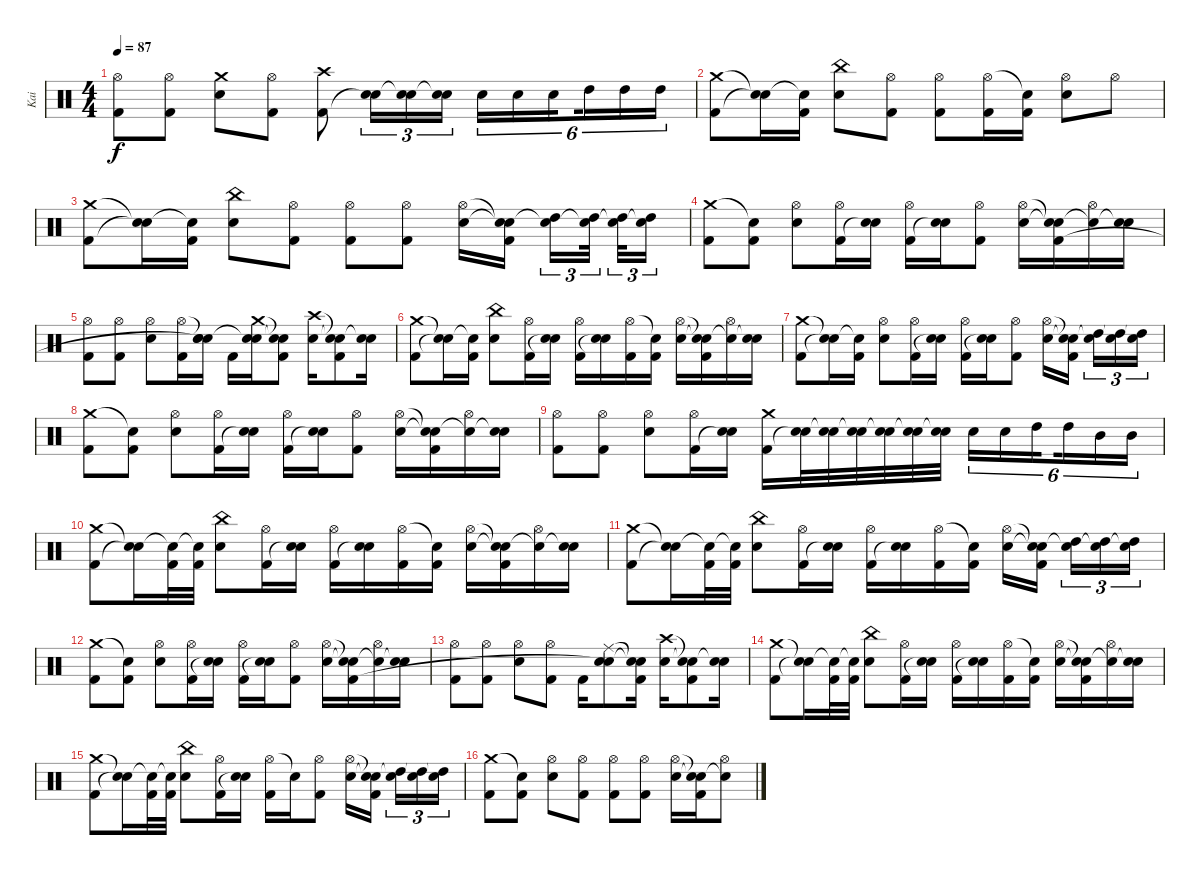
\track ("Kai" "Kai") {instrument percussion}
\staff {score}
\articulation defaults
\ts (4 4)
\tempo 87
\clef neutral
\ks c
("Hi-Hat (open)" "Kick (hit) 2").8{dy f} ("Hi-Hat (open)" "Kick (hit) 2").8 ("Crash medium (hit)" "Snare (hit) 2").8 ("Hi-Hat (open)" "Kick (hit) 2").8 ("Crash high (hit)" "Kick (hit) 2").8 ("Snare (hit) 2" "Snare (hit)"{t}).16{tu (3 2)} ("Snare (hit) 2" "Snare (hit)"{t}).16{tu (3 2)} ("Snare (hit) 2" "Snare (hit)"{t}).16{tu (3 2)} "Snare (hit) 2".16{tu (6 4)} "Snare (hit) 2".16{tu (6 4)} "Snare (hit) 2".16{tu (6 4) beam splitsecondary} "High Tom (hit)".16{tu (6 4)} "High Tom (hit)".16{tu (6 4)} "High Tom (hit)".16{tu (6 4)} |
("Crash medium (hit)" "Kick (hit) 2").8 ("Snare (hit)"{t} "Snare (hit)"{t}).16 ("Snare (hit)"{t} "Kick (hit) 2").16 ("China (hit)" "Snare (hit) 2").8 ("Hi-Hat (open)" "Kick (hit) 2").8 ("Hi-Hat (open)" "Kick (hit) 2").8 ("Hi-Hat (open)" "Kick (hit) 2").16 ("Snare (hit)"{t} "Kick (hit) 2").16 ("Hi-Hat (open)" "Snare (hit) 2").8 "Hi-Hat (open)".8 |
("Crash medium (hit)" "Kick (hit) 2").8 ("Snare (hit)"{t} "Snare (hit)"{t}).16 ("Snare (hit)"{t} "Kick (hit) 2").16 ("China (hit)" "Snare (hit) 2").8 ("Hi-Hat (open)" "Kick (hit) 2").8 ("Hi-Hat (open)" "Kick (hit) 2").8 ("Hi-Hat (open)" "Kick (hit) 2").8 ("Hi-Hat (open)" "Snare (hit) 2").16 ("Snare (hit)"{t} "Snare (hit)"{t} "Kick (hit) 2").16{beam splitsecondary} ("High Tom (hit)" "Snare (hit)"{t}).16{tu (3 2)} ("High Tom (hit)" "Snare (hit)"{t}).32{tu (3 2) beam splitsecondary} ("High Tom (hit)" "Snare (hit)"{t}).32{tu (3 2)} ("High Tom (hit)" "Snare (hit)"{t}).16{tu (3 2)} |
("Crash medium (hit)" "Kick (hit) 2").8 ("Snare (hit)"{t} "Kick (hit) 2").8 ("Hi-Hat (open)" "Snare (hit) 2").8 ("Hi-Hat (open)" "Kick (hit) 2").16 ("Snare (hit) 2" "Snare (hit)"{t}).16 ("Hi-Hat (open)" "Kick (hit) 2").16 ("Snare (hit) 2" "Snare (hit)"{t}).16 ("Hi-Hat (open)" "Kick (hit) 2").8 ("Hi-Hat (open)" "Snare (hit) 2").16 ("Snare (hit)"{t} "Snare (hit)"{t} "Kick (hit) 2").16 ("Hi-Hat (open)" "Snare (hit)"{t}).16 ("Snare (hit) 2" "Snare (hit)"{t}).16 |
("Hi-Hat (open)" "Kick (hit) 2").8 ("Hi-Hat (open)" "Kick (hit) 2").8 ("Hi-Hat (open)" "Snare (hit) 2").8 ("Hi-Hat (open)" "Kick (hit) 2").16 ("Snare (hit)"{t} "Snare (hit) 2" "Snare (hit)"{t}).16 "Kick (hit) 2".16 ("Crash medium (hit)" "Snare (hit) 2" "Snare (hit)"{t}).16 ("Snare (hit)"{t} "Snare (hit)"{t} "Kick (hit) 2").8 ("Crash high (hit)" "Snare (hit) 2").16 ("Snare (hit)"{t} "Snare (hit)"{t} "Kick (hit) 2").8 ("Snare (hit) 2" "Snare (hit)"{t}).16 |
("Crash medium (hit)" "Kick (hit) 2").8 ("Snare (hit)"{t} "Snare (hit)"{t}).16 ("Snare (hit)"{t} "Kick (hit) 2").16 ("China (hit)" "Snare (hit) 2").8 ("Hi-Hat (open)" "Kick (hit) 2").16 ("Snare (hit) 2" "Snare (hit)"{t}).16 ("Hi-Hat (open)" "Kick (hit) 2").16 ("Snare (hit) 2" "Snare (hit)"{t}).16 ("Hi-Hat (open)" "Kick (hit) 2").16 ("Snare (hit)"{t} "Kick (hit) 2").16 ("Hi-Hat (open)" "Snare (hit) 2").16 ("Snare (hit)"{t} "Snare (hit)"{t} "Kick (hit) 2").16 ("Hi-Hat (open)" "Snare (hit)"{t}).16 ("Snare (hit) 2" "Snare (hit)"{t}).16 |
("Crash medium (hit)" "Kick (hit) 2").8 ("Snare (hit)"{t} "Snare (hit)"{t}).16 ("Snare (hit)"{t} "Kick (hit) 2").16 ("Hi-Hat (open)" "Snare (hit) 2").8 ("Hi-Hat (open)" "Kick (hit) 2").16 ("Snare (hit) 2" "Snare (hit)"{t}).16 ("Hi-Hat (open)" "Kick (hit) 2").16 ("Snare (hit) 2" "Snare (hit)"{t}).16 ("Hi-Hat (open)" "Kick (hit) 2").8 ("Hi-Hat (open)" "Snare (hit) 2").16 ("Snare (hit)"{t} "Snare (hit)"{t} "Kick (hit) 2").16{beam splitsecondary} ("High Tom (hit)" "Snare (hit)"{t}).16{tu (3 2)} ("High Tom (hit)" "Snare (hit)"{t}).16{tu (3 2)} ("High Tom (hit)" "Snare (hit)"{t}).16{tu (3 2)} |
("Crash medium (hit)" "Kick (hit) 2").8 ("Snare (hit)"{t} "Kick (hit) 2").8 ("Hi-Hat (open)" "Snare (hit) 2").8 ("Hi-Hat (open)" "Kick (hit) 2").16 ("Snare (hit) 2" "Snare (hit)"{t}).16 ("Hi-Hat (open)" "Kick (hit) 2").16 ("Snare (hit) 2" "Snare (hit)"{t}).16 ("Hi-Hat (open)" "Kick (hit) 2").8 ("Hi-Hat (open)" "Snare (hit) 2").16 ("Snare (hit)"{t} "Snare (hit)"{t} "Kick (hit) 2").16 ("Hi-Hat (open)" "Snare (hit)"{t}).16 ("Snare (hit) 2" "Snare (hit)"{t}).16 |
("Hi-Hat (open)" "Kick (hit) 2").8 ("Hi-Hat (open)" "Kick (hit) 2").8 ("Hi-Hat (open)" "Snare (hit) 2").8 ("Hi-Hat (open)" "Kick (hit) 2").16 ("Snare (hit) 2" "Snare (hit)"{t}).16 ("Crash medium (hit)" "Kick (hit) 2").16 ("Snare (hit) 2" "Snare (hit)"{t}).32 ("Snare (hit) 2" "Snare (hit)"{t}).32 ("Snare (hit) 2" "Snare (hit)"{t}).32 ("Snare (hit) 2" "Snare (hit)"{t}).32 ("Snare (hit) 2" "Snare (hit)"{t}).32 ("Snare (hit) 2" "Snare (hit)"{t}).32 "Snare (hit) 2".16{tu (6 4)} "Snare (hit) 2".16{tu (6 4)} "High Tom (hit)".16{tu (6 4) beam splitsecondary} "High Tom (hit)".16{tu (6 4)} "Mid Tom (hit)".16{tu (6 4)} "Mid Tom (hit)".16{tu (6 4)} |
("Crash medium (hit)" "Kick (hit) 2").8 ("Snare (hit)"{t} "Snare (hit)"{t}).16 ("Snare (hit)"{t} "Kick (hit) 2").32 ("Snare (hit)"{t} "Kick (hit) 2").32 ("China (hit)" "Snare (hit) 2").8 ("Hi-Hat (open)" "Kick (hit) 2").16 ("Snare (hit) 2" "Snare (hit)"{t}).16 ("Hi-Hat (open)" "Kick (hit) 2").16 ("Snare (hit) 2" "Snare (hit)"{t}).16 ("Hi-Hat (open)" "Kick (hit) 2").16 ("Snare (hit)"{t} "Kick (hit) 2").16 ("Hi-Hat (open)" "Snare (hit) 2").16 ("Snare (hit)"{t} "Snare (hit)"{t} "Kick (hit) 2").16 ("Hi-Hat (open)" "Snare (hit)"{t}).16 ("Snare (hit) 2" "Snare (hit)"{t}).16 |
("Crash medium (hit)" "Kick (hit) 2").8 ("Snare (hit)"{t} "Snare (hit)"{t}).16 ("Snare (hit)"{t} "Kick (hit) 2").32 ("Snare (hit)"{t} "Kick (hit) 2").32 ("China (hit)" "Snare (hit) 2").8 ("Hi-Hat (open)" "Kick (hit) 2").16 ("Snare (hit) 2" "Snare (hit)"{t}).16 ("Hi-Hat (open)" "Kick (hit) 2").16 ("Snare (hit) 2" "Snare (hit)"{t}).16 ("Hi-Hat (open)" "Kick (hit) 2").16 ("Snare (hit)"{t} "Kick (hit) 2").16 ("Hi-Hat (open)" "Snare (hit) 2").16 ("Snare (hit)"{t} "Snare (hit)"{t} "Kick (hit) 2").16{beam splitsecondary} ("High Tom (hit)" "Snare (hit)"{t}).16{tu (3 2)} ("High Tom (hit)" "Snare (hit)"{t}).16{tu (3 2)} ("High Tom (hit)" "Snare (hit)"{t}).16{tu (3 2)} |
("Crash medium (hit)" "Kick (hit) 2").8 ("Snare (hit)"{t} "Kick (hit) 2").8 ("Hi-Hat (open)" "Snare (hit) 2").8 ("Hi-Hat (open)" "Kick (hit) 2").16 ("Snare (hit) 2" "Snare (hit)"{t}).16 ("Hi-Hat (open)" "Kick (hit) 2").16 ("Snare (hit) 2" "Snare (hit)"{t}).16 ("Hi-Hat (open)" "Kick (hit) 2").8 ("Hi-Hat (open)" "Snare (hit) 2").16 ("Snare (hit)"{t} "Snare (hit)"{t} "Kick (hit) 2").16 ("Hi-Hat (open)" "Snare (hit)"{t}).16 ("Snare (hit) 2" "Snare (hit)"{t}).16 |
("Hi-Hat (open)" "Kick (hit) 2").8 ("Hi-Hat (open)" "Kick (hit) 2").8 ("Hi-Hat (open)" "Snare (hit) 2").8 ("Hi-Hat (open)" "Kick (hit) 2").8 "Kick (hit) 2".16 ("Ride (middle)" "Snare (hit) 2" "Snare (hit)"{t}).8 ("Snare (hit)"{t} "Snare (hit)"{t} "Kick (hit) 2").16 ("Crash high (hit)" "Snare (hit) 2").16 ("Snare (hit)"{t} "Snare (hit)"{t} "Kick (hit) 2").8 ("Snare (hit) 2" "Snare (hit)"{t}).16 |
("Crash medium (hit)" "Kick (hit) 2").8 ("Snare (hit)"{t} "Snare (hit)"{t}).16 ("Snare (hit)"{t} "Kick (hit) 2").32 ("Snare (hit)"{t} "Kick (hit) 2").32 ("China (hit)" "Snare (hit) 2").8 ("Hi-Hat (open)" "Kick (hit) 2").16 ("Snare (hit) 2" "Snare (hit)"{t}).16 ("Hi-Hat (open)" "Kick (hit) 2").16 ("Snare (hit) 2" "Snare (hit)"{t}).16 ("Hi-Hat (open)" "Kick (hit) 2").16 ("Snare (hit)"{t} "Kick (hit) 2").16 ("Hi-Hat (open)" "Snare (hit) 2").16 ("Snare (hit)"{t} "Snare (hit)"{t} "Kick (hit) 2").16 ("Hi-Hat (open)" "Snare (hit)"{t}).16 ("Snare (hit) 2" "Snare (hit)"{t}).16 |
("Crash medium (hit)" "Kick (hit) 2").8 ("Snare (hit)"{t} "Snare (hit)"{t}).16 ("Snare (hit)"{t} "Kick (hit) 2").32 ("Snare (hit)"{t} "Kick (hit) 2").32 ("China (hit)" "Snare (hit) 2").8 ("Hi-Hat (open)" "Kick (hit) 2").16 ("Snare (hit) 2" "Snare (hit)"{t}).16 ("Hi-Hat (open)" "Kick (hit) 2").16 "Snare (hit)"{t}.16 ("Hi-Hat (open)" "Kick (hit) 2").8 ("Hi-Hat (open)" "Snare (hit) 2").16 ("Snare (hit)"{t} "Snare (hit)"{t} "Kick (hit) 2").16{beam splitsecondary} ("High Tom (hit)" "Snare (hit)"{t}).16{tu (3 2)} ("High Tom (hit)" "Snare (hit)"{t}).16{tu (3 2)} ("High Tom (hit)" "Snare (hit)"{t}).16{tu (3 2)} |
("Crash medium (hit)" "Kick (hit) 2").8 ("Snare (hit)"{t} "Kick (hit) 2").8 ("Hi-Hat (open)" "Snare (hit) 2").8 ("Hi-Hat (open)" "Kick (hit) 2").8 ("Hi-Hat (open)" "Kick (hit) 2").8 ("Hi-Hat (open)" "Kick (hit) 2").8 ("Hi-Hat (open)" "Snare (hit) 2").16 ("Snare (hit)"{t} "Snare (hit)"{t} "Kick (hit) 2").16 ("Hi-Hat (open)" "Snare (hit)"{t}).8
